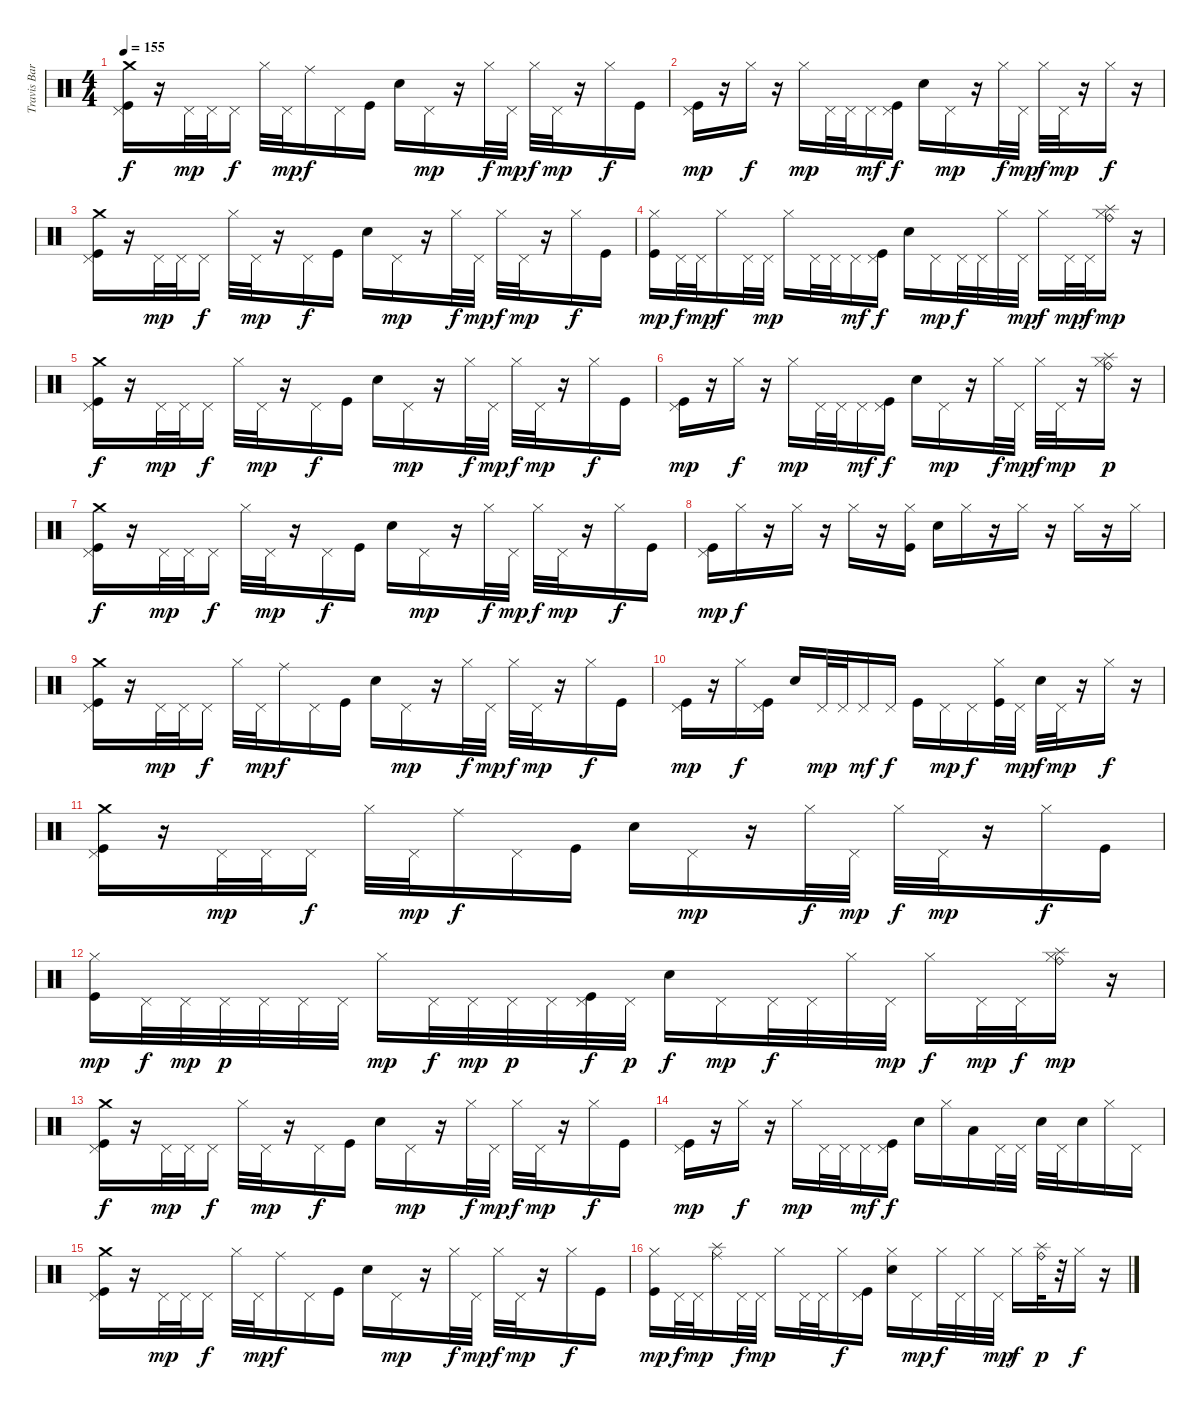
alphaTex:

\track ("Travis Barker(drums)" "Travis Bar") {instrument percussion}
\staff {score}
\articulation defaults
\ts (4 4)
\tempo 155
\clef neutral
\ks c
("Crash medium (hit)" "Pedal Hi-Hat (hit)" "Kick (hit)").16{dy f} r.16 "Pedal Hi-Hat (hit)".32{dy mp} "Pedal Hi-Hat (hit)".32 "Pedal Hi-Hat (hit)".16{dy f} "Hi-Hat (closed)".32 "Pedal Hi-Hat (hit)".32{dy mp} "Ride (middle)".16{dy f} "Pedal Hi-Hat (hit)".16 "Kick (hit)".16 "Electric Snare (hit)".16 "Pedal Hi-Hat (hit)".16{dy mp} r.16 "Hi-Hat (closed)".32{dy f} "Pedal Hi-Hat (hit)".32{dy mp} "Hi-Hat (closed)".32{dy f} "Pedal Hi-Hat (hit)".32{dy mp} r.16 "Hi-Hat (closed)".16{dy f} "Kick (hit)".16 |
("Pedal Hi-Hat (hit)" "Kick (hit)").16{dy mp} r.16 "Hi-Hat (closed)".16{dy f} r.16 "Hi-Hat (closed)".16{dy mp} "Pedal Hi-Hat (hit)".32 "Pedal Hi-Hat (hit)".32 "Pedal Hi-Hat (hit)".16{dy mf} ("Pedal Hi-Hat (hit)" "Kick (hit)").16{dy f} "Electric Snare (hit)".16 "Pedal Hi-Hat (hit)".16{dy mp} r.16 "Hi-Hat (closed)".32{dy f} "Pedal Hi-Hat (hit)".32{dy mp} "Hi-Hat (closed)".32{dy f} "Pedal Hi-Hat (hit)".32{dy mp} r.16 "Hi-Hat (closed)".16{dy f} r.16 |
("Crash medium (hit)" "Pedal Hi-Hat (hit)" "Kick (hit)").16 r.16 "Pedal Hi-Hat (hit)".32{dy mp} "Pedal Hi-Hat (hit)".32 "Pedal Hi-Hat (hit)".16{dy f} "Hi-Hat (closed)".32 "Pedal Hi-Hat (hit)".32{dy mp} r.16 "Pedal Hi-Hat (hit)".16{dy f} "Kick (hit)".16 "Electric Snare (hit)".16 "Pedal Hi-Hat (hit)".16{dy mp} r.16 "Hi-Hat (closed)".32{dy f} "Pedal Hi-Hat (hit)".32{dy mp} "Hi-Hat (closed)".32{dy f} "Pedal Hi-Hat (hit)".32{dy mp} r.16 "Hi-Hat (closed)".16{dy f} "Kick (hit)".16 |
("Hi-Hat (closed)" "Kick (hit)").16{dy mp} "Pedal Hi-Hat (hit)".32{dy f} "Pedal Hi-Hat (hit)".32{dy mp} "Hi-Hat (closed)".16{dy f} "Pedal Hi-Hat (hit)".32 "Pedal Hi-Hat (hit)".32{dy mp} "Hi-Hat (closed)".16 "Pedal Hi-Hat (hit)".32 "Pedal Hi-Hat (hit)".32 "Pedal Hi-Hat (hit)".16{dy mf} ("Pedal Hi-Hat (hit)" "Kick (hit)").16{dy f} "Electric Snare (hit)".16 "Pedal Hi-Hat (hit)".16{dy mp} "Pedal Hi-Hat (hit)".32{dy f} "Pedal Hi-Hat (hit)".32 "Hi-Hat (closed)".32 "Pedal Hi-Hat (hit)".32{dy mp} "Hi-Hat (closed)".16{dy f} "Pedal Hi-Hat (hit)".32{dy mp} "Pedal Hi-Hat (hit)".32{dy f} ("Splash (hit)" "Ride (bell)" "Hi-Hat (closed)").16{dy mp} r.16 |
("Crash medium (hit)" "Pedal Hi-Hat (hit)" "Kick (hit)").16{dy f} r.16 "Pedal Hi-Hat (hit)".32{dy mp} "Pedal Hi-Hat (hit)".32 "Pedal Hi-Hat (hit)".16{dy f} "Hi-Hat (closed)".32 "Pedal Hi-Hat (hit)".32{dy mp} r.16 "Pedal Hi-Hat (hit)".16{dy f} "Kick (hit)".16 "Electric Snare (hit)".16 "Pedal Hi-Hat (hit)".16{dy mp} r.16 "Hi-Hat (closed)".32{dy f} "Pedal Hi-Hat (hit)".32{dy mp} "Hi-Hat (closed)".32{dy f} "Pedal Hi-Hat (hit)".32{dy mp} r.16 "Hi-Hat (closed)".16{dy f} "Kick (hit)".16 |
("Pedal Hi-Hat (hit)" "Kick (hit)").16{dy mp} r.16 "Hi-Hat (closed)".16{dy f} r.16 "Hi-Hat (closed)".16{dy mp} "Pedal Hi-Hat (hit)".32 "Pedal Hi-Hat (hit)".32 "Pedal Hi-Hat (hit)".16{dy mf} ("Pedal Hi-Hat (hit)" "Kick (hit)").16{dy f} "Electric Snare (hit)".16 "Pedal Hi-Hat (hit)".16{dy mp} r.16 "Hi-Hat (closed)".32{dy f} "Pedal Hi-Hat (hit)".32{dy mp} "Hi-Hat (closed)".32{dy f} "Pedal Hi-Hat (hit)".32{dy mp} r.16 ("Splash (hit)" "Ride (bell)" "Hi-Hat (closed)").16{dy p} r.16 |
("Crash medium (hit)" "Pedal Hi-Hat (hit)" "Kick (hit)").16{dy f} r.16 "Pedal Hi-Hat (hit)".32{dy mp} "Pedal Hi-Hat (hit)".32 "Pedal Hi-Hat (hit)".16{dy f} "Hi-Hat (closed)".32 "Pedal Hi-Hat (hit)".32{dy mp} r.16 "Pedal Hi-Hat (hit)".16{dy f} "Kick (hit)".16 "Electric Snare (hit)".16 "Pedal Hi-Hat (hit)".16{dy mp} r.16 "Hi-Hat (closed)".32{dy f} "Pedal Hi-Hat (hit)".32{dy mp} "Hi-Hat (closed)".32{dy f} "Pedal Hi-Hat (hit)".32{dy mp} r.16 "Hi-Hat (closed)".16{dy f} "Kick (hit)".16 |
("Pedal Hi-Hat (hit)" "Kick (hit)").16{dy mp} "Hi-Hat (closed)".16{dy f} r.16 "Hi-Hat (closed)".16 r.16 "Hi-Hat (closed)".16 r.16 ("Hi-Hat (closed)" "Kick (hit)").16 "Electric Snare (hit)".16 "Hi-Hat (closed)".16 r.16 "Hi-Hat (closed)".16 r.16 "Hi-Hat (closed)".16 r.16 "Hi-Hat (closed)".16 |
("Crash medium (hit)" "Pedal Hi-Hat (hit)" "Kick (hit)").16 r.16 "Pedal Hi-Hat (hit)".32{dy mp} "Pedal Hi-Hat (hit)".32 "Pedal Hi-Hat (hit)".16{dy f} "Hi-Hat (closed)".32 "Pedal Hi-Hat (hit)".32{dy mp} "Ride (middle)".16{dy f} "Pedal Hi-Hat (hit)".16 "Kick (hit)".16 "Electric Snare (hit)".16 "Pedal Hi-Hat (hit)".16{dy mp} r.16 "Hi-Hat (closed)".32{dy f} "Pedal Hi-Hat (hit)".32{dy mp} "Hi-Hat (closed)".32{dy f} "Pedal Hi-Hat (hit)".32{dy mp} r.16 "Hi-Hat (closed)".16{dy f} "Kick (hit)".16 |
("Pedal Hi-Hat (hit)" "Kick (hit)").16{dy mp} r.16 "Hi-Hat (closed)".16{dy f} ("Pedal Hi-Hat (hit)" "Kick (hit)").16 "Electric Snare (hit)".16 "Pedal Hi-Hat (hit)".32{dy mp} "Pedal Hi-Hat (hit)".32 "Pedal Hi-Hat (hit)".16{dy mf} "Pedal Hi-Hat (hit)".16{dy f} "Kick (hit)".16 "Pedal Hi-Hat (hit)".16{dy mp} "Pedal Hi-Hat (hit)".16{dy f} ("Hi-Hat (closed)" "Kick (hit)").32 "Pedal Hi-Hat (hit)".32{dy mp} "Electric Snare (hit)".32{dy f} "Pedal Hi-Hat (hit)".32{dy mp} r.16 "Hi-Hat (closed)".16{dy f} r.16 |
("Crash medium (hit)" "Pedal Hi-Hat (hit)" "Kick (hit)").16 r.16 "Pedal Hi-Hat (hit)".32{dy mp} "Pedal Hi-Hat (hit)".32 "Pedal Hi-Hat (hit)".16{dy f} "Hi-Hat (closed)".32 "Pedal Hi-Hat (hit)".32{dy mp} "Ride (middle)".16{dy f} "Pedal Hi-Hat (hit)".16 "Kick (hit)".16 "Electric Snare (hit)".16 "Pedal Hi-Hat (hit)".16{dy mp} r.16 "Hi-Hat (closed)".32{dy f} "Pedal Hi-Hat (hit)".32{dy mp} "Hi-Hat (closed)".32{dy f} "Pedal Hi-Hat (hit)".32{dy mp} r.16 "Hi-Hat (closed)".16{dy f} "Kick (hit)".16 |
("Hi-Hat (closed)" "Kick (hit)").16{dy mp} "Pedal Hi-Hat (hit)".32{dy f} "Pedal Hi-Hat (hit)".32{dy mp} "Pedal Hi-Hat (hit)".32{dy p} "Pedal Hi-Hat (hit)".32 "Pedal Hi-Hat (hit)".32 "Pedal Hi-Hat (hit)".32 "Hi-Hat (closed)".16{dy mp} "Pedal Hi-Hat (hit)".32{dy f} "Pedal Hi-Hat (hit)".32{dy mp} "Pedal Hi-Hat (hit)".32{dy p} "Pedal Hi-Hat (hit)".32 ("Pedal Hi-Hat (hit)" "Kick (hit)").32{dy f} "Pedal Hi-Hat (hit)".32{dy p} "Electric Snare (hit)".16{dy f} "Pedal Hi-Hat (hit)".16{dy mp} "Pedal Hi-Hat (hit)".32{dy f} "Pedal Hi-Hat (hit)".32 "Hi-Hat (closed)".32 "Pedal Hi-Hat (hit)".32{dy mp} "Hi-Hat (closed)".16{dy f} "Pedal Hi-Hat (hit)".32{dy mp} "Pedal Hi-Hat (hit)".32{dy f} ("Splash (hit)" "Ride (bell)" "Hi-Hat (closed)").16{dy mp} r.16 |
("Crash medium (hit)" "Pedal Hi-Hat (hit)" "Kick (hit)").16{dy f} r.16 "Pedal Hi-Hat (hit)".32{dy mp} "Pedal Hi-Hat (hit)".32 "Pedal Hi-Hat (hit)".16{dy f} "Hi-Hat (closed)".32 "Pedal Hi-Hat (hit)".32{dy mp} r.16 "Pedal Hi-Hat (hit)".16{dy f} "Kick (hit)".16 "Electric Snare (hit)".16 "Pedal Hi-Hat (hit)".16{dy mp} r.16 "Hi-Hat (closed)".32{dy f} "Pedal Hi-Hat (hit)".32{dy mp} "Hi-Hat (closed)".32{dy f} "Pedal Hi-Hat (hit)".32{dy mp} r.16 "Hi-Hat (closed)".16{dy f} "Kick (hit)".16 |
("Pedal Hi-Hat (hit)" "Kick (hit)").16{dy mp} r.16 "Hi-Hat (closed)".16{dy f} r.16 "Hi-Hat (closed)".16{dy mp} "Pedal Hi-Hat (hit)".32 "Pedal Hi-Hat (hit)".32 "Pedal Hi-Hat (hit)".16{dy mf} ("Pedal Hi-Hat (hit)" "Kick (hit)").16{dy f} "Electric Snare (hit)".16 "Hi-Hat (closed)".16 "Low Floor Tom (hit)".16 "Pedal Hi-Hat (hit)".32 "Pedal Hi-Hat (hit)".32 "Electric Snare (hit)".32 "Pedal Hi-Hat (hit)".32 "Electric Snare (hit)".16 "Hi-Hat (closed)".16 "Pedal Hi-Hat (hit)".16 |
("Crash medium (hit)" "Pedal Hi-Hat (hit)" "Kick (hit)").16 r.16 "Pedal Hi-Hat (hit)".32{dy mp} "Pedal Hi-Hat (hit)".32 "Pedal Hi-Hat (hit)".16{dy f} "Hi-Hat (closed)".32 "Pedal Hi-Hat (hit)".32{dy mp} "Ride (middle)".16{dy f} "Pedal Hi-Hat (hit)".16 "Kick (hit)".16 "Electric Snare (hit)".16 "Pedal Hi-Hat (hit)".16{dy mp} r.16 "Hi-Hat (closed)".32{dy f} "Pedal Hi-Hat (hit)".32{dy mp} "Hi-Hat (closed)".32{dy f} "Pedal Hi-Hat (hit)".32{dy mp} r.16 "Hi-Hat (closed)".16{dy f} "Kick (hit)".16 |
("Hi-Hat (closed)" "Kick (hit)").16{dy mp} "Pedal Hi-Hat (hit)".32{dy f} "Pedal Hi-Hat (hit)".32{dy mp} ("Ride (middle)" "Splash (hit)").16 "Pedal Hi-Hat (hit)".32{dy f} "Pedal Hi-Hat (hit)".32{dy mp} "Hi-Hat (closed)".16 "Pedal Hi-Hat (hit)".32 "Pedal Hi-Hat (hit)".32 "Hi-Hat (closed)".16{dy f} ("Pedal Hi-Hat (hit)" "Kick (hit)").16 ("Hi-Hat (closed)" "Electric Snare (hit)").16 "Pedal Hi-Hat (hit)".16{dy mp} "Hi-Hat (closed)".32{dy f} "Pedal Hi-Hat (hit)".32 "Hi-Hat (closed)".32 "Pedal Hi-Hat (hit)".32{dy mp} "Hi-Hat (closed)".16{dy f} ("Ride (bell)" "Splash (hit)").32{dy p} r.32 "Hi-Hat (closed)".16{dy f} r.16
